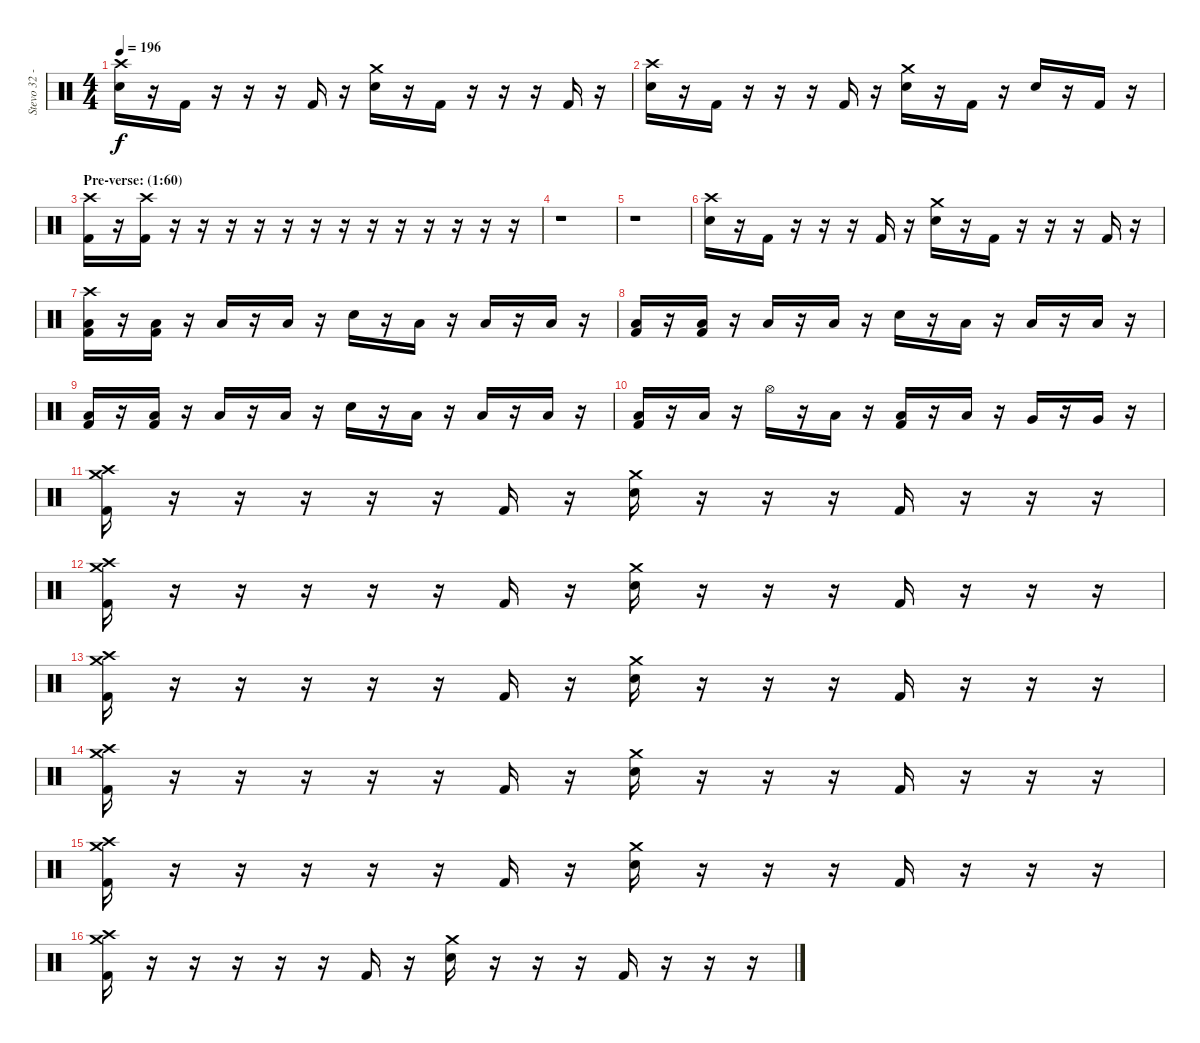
\track ("Stevo 32 - Drums" "Stevo 32 -") {instrument percussion}
\staff {score}
\articulation defaults
\ts (4 4)
\tempo 196
\clef neutral
\ks c
("Crash high (hit)" "Snare (hit) 2").16{dy f} r.16 "Kick (hit) 2".16 r.16 r.16 r.16 "Kick (hit) 2".16 r.16 ("Crash medium (hit)" "Snare (hit) 2").16 r.16 "Kick (hit) 2".16 r.16 r.16 r.16 "Kick (hit) 2".16 r.16 |
("Crash high (hit)" "Snare (hit) 2").16 r.16 "Kick (hit) 2".16 r.16 r.16 r.16 "Kick (hit) 2".16 r.16 ("Crash medium (hit)" "Snare (hit) 2").16 r.16 "Kick (hit) 2".16 r.16 "Snare (hit) 2".16 r.16 "Kick (hit) 2".16 r.16 |
\section ("" "Pre-verse: (1:60)")
("Crash high (hit)" "Kick (hit) 2").16 r.16 ("Crash high (hit)" "Kick (hit) 2").16 r.16 r.16 r.16 r.16 r.16 r.16 r.16 r.16 r.16 r.16 r.16 r.16 r.16 |
r.1 |
r.1 |
("Crash high (hit)" "Snare (hit) 2").16 r.16 "Kick (hit) 2".16 r.16 r.16 r.16 "Kick (hit) 2".16 r.16 ("Crash medium (hit)" "Snare (hit) 2").16 r.16 "Kick (hit) 2".16 r.16 r.16 r.16 "Kick (hit) 2".16 r.16 |
("Crash high (hit)" "Low Tom (hit)" "Kick (hit) 2").16 r.16 ("Low Tom (hit)" "Kick (hit) 2").16 r.16 "Low Tom (hit)".16 r.16 "Low Tom (hit)".16 r.16 "Snare (hit) 2".16 r.16 "Low Tom (hit)".16 r.16 "Low Tom (hit)".16 r.16 "Low Tom (hit)".16 r.16 |
("Low Tom (hit)" "Kick (hit) 2").16 r.16 ("Low Tom (hit)" "Kick (hit) 2").16 r.16 "Low Tom (hit)".16 r.16 "Low Tom (hit)".16 r.16 "Snare (hit) 2".16 r.16 "Low Tom (hit)".16 r.16 "Low Tom (hit)".16 r.16 "Low Tom (hit)".16 r.16 |
("Low Tom (hit)" "Kick (hit) 2").16 r.16 ("Low Tom (hit)" "Kick (hit) 2").16 r.16 "Low Tom (hit)".16 r.16 "Low Tom (hit)".16 r.16 "Snare (hit) 2".16 r.16 "Low Tom (hit)".16 r.16 "Low Tom (hit)".16 r.16 "Low Tom (hit)".16 r.16 |
("Low Tom (hit)" "Kick (hit) 2").16 r.16 "Low Tom (hit)".16 r.16 "Hi-Hat (open)".16 r.16 "Low Tom (hit)".16 r.16 ("Low Tom (hit)" "Kick (hit) 2").16 r.16 "Low Tom (hit)".16 r.16 "Very Low Tom (hit)".16 r.16 "Very Low Tom (hit)".16 r.16 |
("Crash high (hit)" "Crash medium (hit)" "Kick (hit) 2").16 r.16 r.16 r.16 r.16 r.16 "Kick (hit) 2".16 r.16 ("Crash medium (hit)" "Snare (hit) 2").16 r.16 r.16 r.16 "Kick (hit) 2".16 r.16 r.16 r.16 |
("Crash high (hit)" "Crash medium (hit)" "Kick (hit) 2").16 r.16 r.16 r.16 r.16 r.16 "Kick (hit) 2".16 r.16 ("Crash medium (hit)" "Snare (hit) 2").16 r.16 r.16 r.16 "Kick (hit) 2".16 r.16 r.16 r.16 |
("Crash high (hit)" "Crash medium (hit)" "Kick (hit) 2").16 r.16 r.16 r.16 r.16 r.16 "Kick (hit) 2".16 r.16 ("Crash medium (hit)" "Snare (hit) 2").16 r.16 r.16 r.16 "Kick (hit) 2".16 r.16 r.16 r.16 |
("Crash high (hit)" "Crash medium (hit)" "Kick (hit) 2").16 r.16 r.16 r.16 r.16 r.16 "Kick (hit) 2".16 r.16 ("Crash medium (hit)" "Snare (hit) 2").16 r.16 r.16 r.16 "Kick (hit) 2".16 r.16 r.16 r.16 |
("Crash high (hit)" "Crash medium (hit)" "Kick (hit) 2").16 r.16 r.16 r.16 r.16 r.16 "Kick (hit) 2".16 r.16 ("Crash medium (hit)" "Snare (hit) 2").16 r.16 r.16 r.16 "Kick (hit) 2".16 r.16 r.16 r.16 |
("Crash high (hit)" "Crash medium (hit)" "Kick (hit) 2").16 r.16 r.16 r.16 r.16 r.16 "Kick (hit) 2".16 r.16 ("Crash medium (hit)" "Snare (hit) 2").16 r.16 r.16 r.16 "Kick (hit) 2".16 r.16 r.16 r.16
